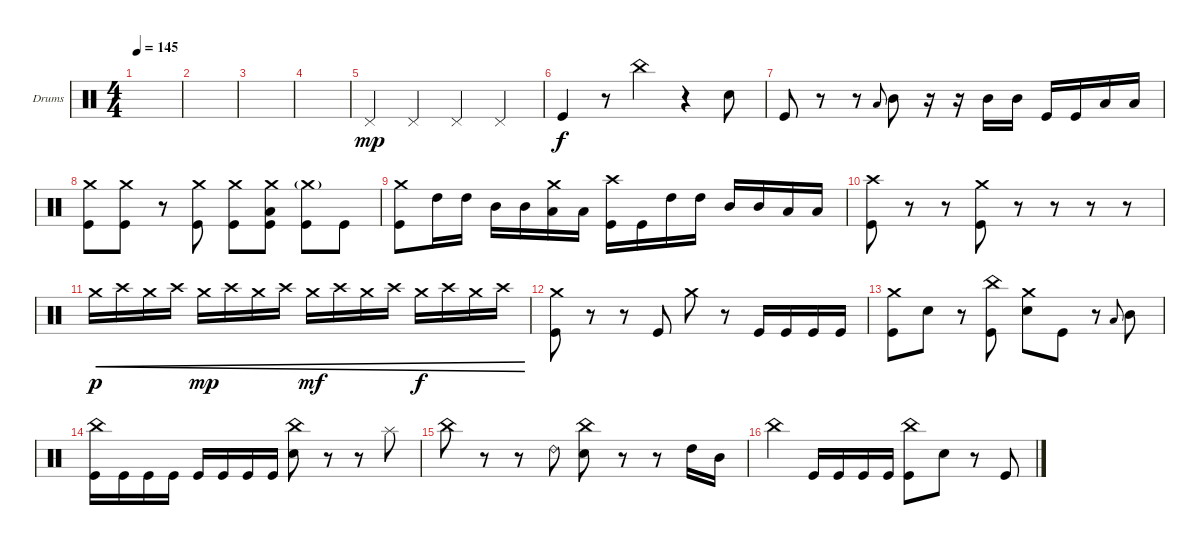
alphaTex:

\defaultSystemsLayout 4
\bracketExtendMode groupsimilarinstruments
\firstSystemTrackNameOrientation horizontal
\otherSystemsTrackNameOrientation horizontal
\track ("Drumkit" "Drums") {instrument percussion}
\staff {score}
\articulation defaults
\ts (4 4)
\tempo 145
\clef neutral
\ks c
|
|
|
|
"Pedal Hi-Hat (hit)".4{dy mp} "Pedal Hi-Hat (hit)".4 "Pedal Hi-Hat (hit)".4 "Pedal Hi-Hat (hit)".4 |
"Kick (hit)".4{dy f} r.8 "China (hit)".4 r.4 "Snare (hit) 2".8 |
"Kick (hit)".8 r.8 r.8 "Low Tom (hit)".8{gr onbeat} "Mid Tom (hit)".8 r.16 r.16 "Mid Tom (hit)".16 "Mid Tom (hit)".16 "Kick (hit)".16 "Kick (hit)".16 "Low Tom (hit)".16 "Low Tom (hit)".16 |
("Kick (hit)" "Crash medium (hit)").8 ("Kick (hit)" "Crash medium (hit)").8 r.8 ("Kick (hit)" "Crash medium (hit)").8 ("Kick (hit)" "Crash medium (hit)").8 ("Low Tom (hit)" "Kick (hit)" "Crash medium (hit)").8 ("Kick (hit)" "Crash medium (hit)"{g}).8 "Kick (hit)".8 |
("Kick (hit)" "Crash medium (hit)").8 "High Tom (hit)".16 "High Tom (hit)".16 "Mid Tom (hit)".16 "Mid Tom (hit)".16 ("Crash medium (hit)" "Low Tom (hit)").16 "Low Tom (hit)".16 ("Kick (hit)" "Crash high (hit)").16 "Kick (hit)".16 "High Tom (hit)".16 "High Tom (hit)".16 "Mid Tom (hit)".16 "Mid Tom (hit)".16 "Low Tom (hit)".16 "Low Tom (hit)".16 |
("Kick (hit)" "Crash high (hit)").8 r.8 r.8 ("Kick (hit)" "Crash medium (hit)").8 r.8 r.8 r.8 r.8 |
"Crash medium (hit)".16{cre dy p} "Crash high (hit)".16{cre} "Crash medium (hit)".16{cre} "Crash high (hit)".16{cre} "Crash medium (hit)".16{cre dy mp} "Crash high (hit)".16{cre} "Crash medium (hit)".16{cre} "Crash high (hit)".16{cre} "Crash medium (hit)".16{cre dy mf} "Crash high (hit)".16{cre} "Crash medium (hit)".16{cre} "Crash high (hit)".16{cre} "Crash medium (hit)".16{cre dy f} "Crash high (hit)".16{cre} "Crash medium (hit)".16{cre} "Crash high (hit)".16{cre} |
("Crash medium (hit)" "Kick (hit)").8 r.8 r.8 "Kick (hit)".8 "Crash medium (hit)".8 r.8 "Kick (hit)".16 "Kick (hit)".16 "Kick (hit)".16 "Kick (hit)".16 |
("Kick (hit)" "Crash medium (hit)").8 "Snare (hit) 2".8 r.8 ("Kick (hit)" "China (hit)").8 ("Crash medium (hit)" "Snare (hit) 2").8 "Kick (hit)".8 r.8 "Low Tom (hit)".8{gr onbeat} "Mid Tom (hit)".8 |
("China (hit)" "Kick (hit)").16 "Kick (hit)".16 "Kick (hit)".16 "Kick (hit)".16 "Kick (hit)".16 "Kick (hit)".16 "Kick (hit)".16 "Kick (hit)".16 ("Snare (hit) 2" "China (hit)").8 r.8 r.8 "Splash (hit)".8 |
"China (hit)".8 r.8 r.8 "Ride (bell) 2".8 ("China (hit)" "Snare (hit) 2").8 r.8 r.8 "High Tom (hit)".16 "Mid Tom (hit)".16 |
"China (hit)".4 "Kick (hit)".16 "Kick (hit)".16 "Kick (hit)".16 "Kick (hit)".16 ("Kick (hit)" "China (hit)").8 "Snare (hit) 2".8 r.8 "Kick (hit)".8
